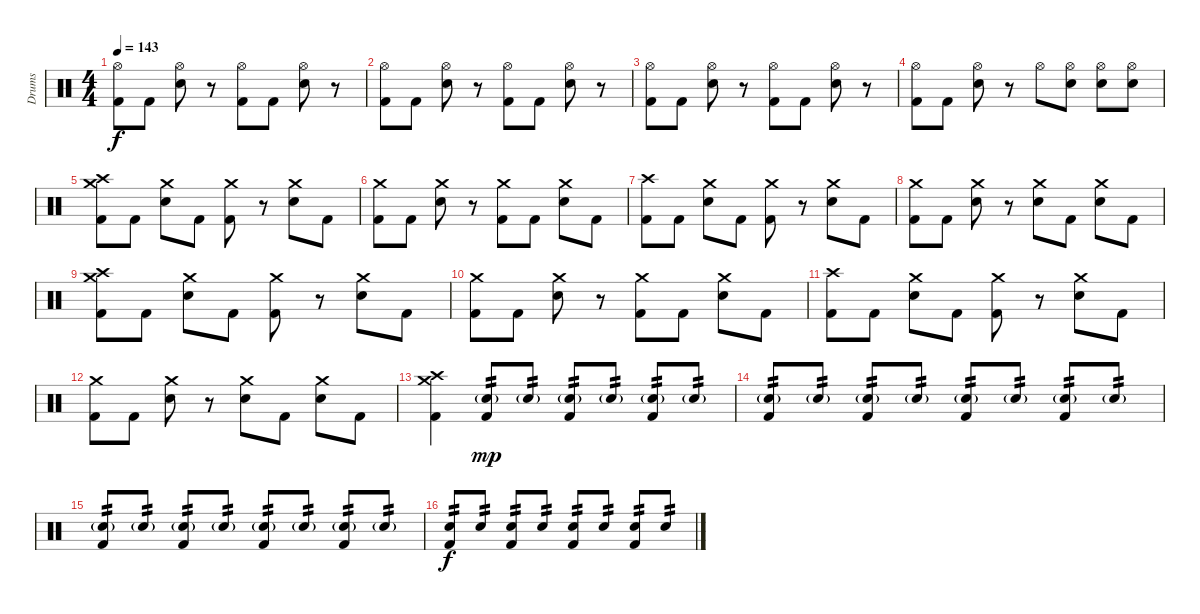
\track ("Drums" "Drums") {instrument percussion}
\staff {score}
\articulation defaults
\ts (4 4)
\tempo 143
\clef neutral
\ks c
("Hi-Hat (open)" "Kick (hit) 2").8{dy f} "Kick (hit) 2".8 ("Hi-Hat (open)" "Electric Snare (hit)").8 r.8 ("Hi-Hat (open)" "Kick (hit) 2").8 "Kick (hit) 2".8 ("Hi-Hat (open)" "Electric Snare (hit)").8 r.8 |
("Hi-Hat (open)" "Kick (hit) 2").8 "Kick (hit) 2".8 ("Hi-Hat (open)" "Electric Snare (hit)").8 r.8 ("Hi-Hat (open)" "Kick (hit) 2").8 "Kick (hit) 2".8 ("Hi-Hat (open)" "Electric Snare (hit)").8 r.8 |
("Hi-Hat (open)" "Kick (hit) 2").8 "Kick (hit) 2".8 ("Hi-Hat (open)" "Electric Snare (hit)").8 r.8 ("Hi-Hat (open)" "Kick (hit) 2").8 "Kick (hit) 2".8 ("Hi-Hat (open)" "Electric Snare (hit)").8 r.8 |
("Hi-Hat (open)" "Kick (hit) 2").8 "Kick (hit) 2".8 ("Hi-Hat (open)" "Electric Snare (hit)").8 r.8 "Hi-Hat (open)".8 ("Hi-Hat (open)" "Electric Snare (hit)").8 ("Hi-Hat (open)" "Electric Snare (hit)").8 ("Hi-Hat (open)" "Electric Snare (hit)").8 |
("Crash high (hit)" "Crash medium (hit)" "Kick (hit) 2").8 "Kick (hit) 2".8 ("Crash medium (hit)" "Electric Snare (hit)").8 "Kick (hit) 2".8 ("Crash medium (hit)" "Kick (hit) 2").8 r.8 ("Crash medium (hit)" "Electric Snare (hit)").8 "Kick (hit) 2".8 |
("Crash medium (hit)" "Kick (hit) 2").8 "Kick (hit) 2".8 ("Crash medium (hit)" "Electric Snare (hit)").8 r.8 ("Crash medium (hit)" "Kick (hit) 2").8 "Kick (hit) 2".8 ("Crash medium (hit)" "Electric Snare (hit)").8 "Kick (hit) 2".8 |
("Crash high (hit)" "Kick (hit) 2").8 "Kick (hit) 2".8 ("Crash medium (hit)" "Electric Snare (hit)").8 "Kick (hit) 2".8 ("Crash medium (hit)" "Kick (hit) 2").8 r.8 ("Crash medium (hit)" "Electric Snare (hit)").8 "Kick (hit) 2".8 |
("Crash medium (hit)" "Kick (hit) 2").8 "Kick (hit) 2".8 ("Crash medium (hit)" "Electric Snare (hit)").8 r.8 ("Crash medium (hit)" "Electric Snare (hit)").8 "Kick (hit) 2".8 ("Crash medium (hit)" "Electric Snare (hit)").8 "Kick (hit) 2".8 |
("Crash high (hit)" "Crash medium (hit)" "Kick (hit) 2").8 "Kick (hit) 2".8 ("Crash medium (hit)" "Electric Snare (hit)").8 "Kick (hit) 2".8 ("Crash medium (hit)" "Kick (hit) 2").8 r.8 ("Crash medium (hit)" "Electric Snare (hit)").8 "Kick (hit) 2".8 |
("Crash medium (hit)" "Kick (hit) 2").8 "Kick (hit) 2".8 ("Crash medium (hit)" "Electric Snare (hit)").8 r.8 ("Crash medium (hit)" "Kick (hit) 2").8 "Kick (hit) 2".8 ("Crash medium (hit)" "Electric Snare (hit)").8 "Kick (hit) 2".8 |
("Crash high (hit)" "Kick (hit) 2").8 "Kick (hit) 2".8 ("Crash medium (hit)" "Electric Snare (hit)").8 "Kick (hit) 2".8 ("Crash medium (hit)" "Kick (hit) 2").8 r.8 ("Crash medium (hit)" "Electric Snare (hit)").8 "Kick (hit) 2".8 |
("Crash medium (hit)" "Kick (hit) 2").8 "Kick (hit) 2".8 ("Crash medium (hit)" "Electric Snare (hit)").8 r.8 ("Crash medium (hit)" "Electric Snare (hit)").8 "Kick (hit) 2".8 ("Crash medium (hit)" "Electric Snare (hit)").8 "Kick (hit) 2".8 |
("Crash high (hit)" "Crash medium (hit)" "Kick (hit) 2").4 ("Electric Snare (hit)"{g} "Kick (hit) 2").8{tp 2 dy mp} "Electric Snare (hit)"{g}.8{tp 2} ("Electric Snare (hit)"{g} "Kick (hit) 2").8{tp 2} "Electric Snare (hit)"{g}.8{tp 2} ("Electric Snare (hit)"{g} "Kick (hit) 2").8{tp 2} "Electric Snare (hit)"{g}.8{tp 2} |
("Electric Snare (hit)"{g} "Kick (hit) 2").8{tp 2} "Electric Snare (hit)"{g}.8{tp 2} ("Electric Snare (hit)"{g} "Kick (hit) 2").8{tp 2} "Electric Snare (hit)"{g}.8{tp 2} ("Electric Snare (hit)"{g} "Kick (hit) 2").8{tp 2} "Electric Snare (hit)"{g}.8{tp 2} ("Electric Snare (hit)"{g} "Kick (hit) 2").8{tp 2} "Electric Snare (hit)"{g}.8{tp 2} |
("Electric Snare (hit)"{g} "Kick (hit) 2").8{tp 2} "Electric Snare (hit)"{g}.8{tp 2} ("Electric Snare (hit)"{g} "Kick (hit) 2").8{tp 2} "Electric Snare (hit)"{g}.8{tp 2} ("Electric Snare (hit)"{g} "Kick (hit) 2").8{tp 2} "Electric Snare (hit)"{g}.8{tp 2} ("Electric Snare (hit)"{g} "Kick (hit) 2").8{tp 2} "Electric Snare (hit)"{g}.8{tp 2} |
("Electric Snare (hit)" "Kick (hit) 2").8{tp 2 dy f} "Electric Snare (hit)".8{tp 2} ("Electric Snare (hit)" "Kick (hit) 2").8{tp 2} "Electric Snare (hit)".8{tp 2} ("Electric Snare (hit)" "Kick (hit) 2").8{tp 2} "Electric Snare (hit)".8{tp 2} ("Electric Snare (hit)" "Kick (hit) 2").8{tp 2} "Electric Snare (hit)".8{tp 2}
